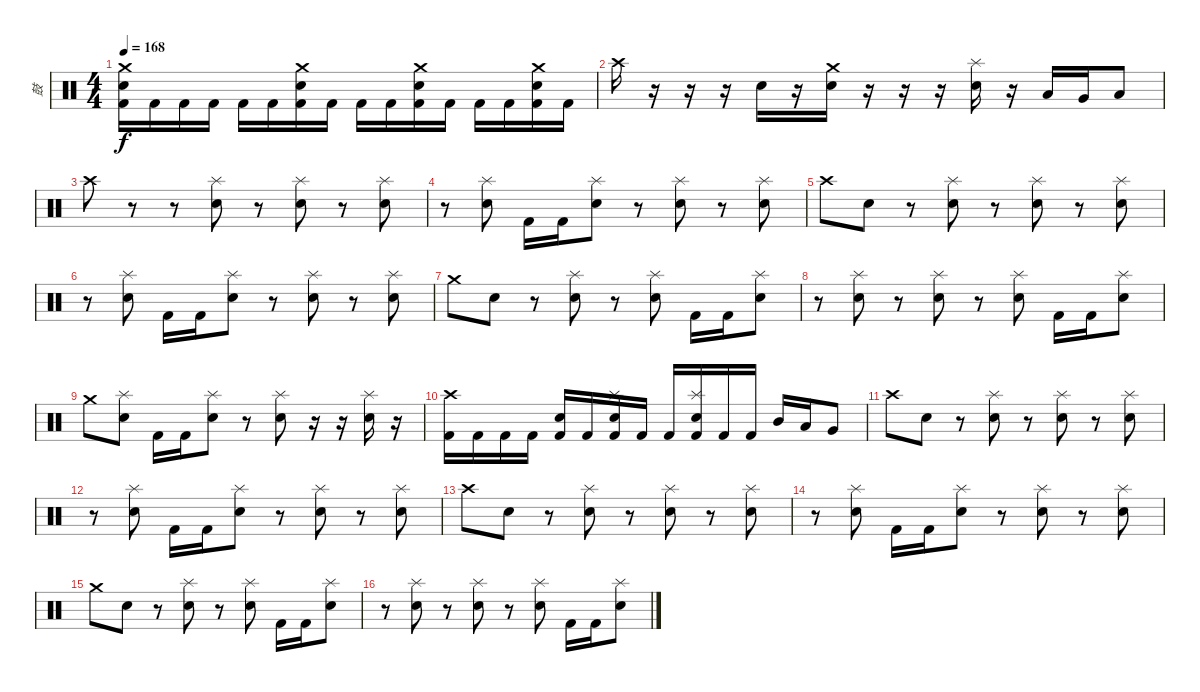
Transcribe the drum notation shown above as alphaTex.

\track ("鼓" "鼓") {instrument percussion}
\staff {score}
\articulation defaults
\ts (4 4)
\tempo 168
\clef neutral
\ks c
("Crash medium (hit)" "Snare (hit) 2" "Kick (hit) 2").16{dy f} "Kick (hit) 2".16 "Kick (hit) 2".16 "Kick (hit) 2".16 "Kick (hit) 2".16 "Kick (hit) 2".16 ("Crash medium (hit)" "Snare (hit) 2" "Kick (hit) 2").16 "Kick (hit) 2".16 "Kick (hit) 2".16 "Kick (hit) 2".16 ("Crash medium (hit)" "Snare (hit) 2" "Kick (hit) 2").16 "Kick (hit) 2".16 "Kick (hit) 2".16 "Kick (hit) 2".16 ("Crash medium (hit)" "Snare (hit) 2" "Kick (hit) 2").16 "Kick (hit) 2".16 |
"Crash high (hit)".16 r.16 r.16 r.16 "Snare (hit) 2".16 r.16 ("Crash medium (hit)" "Snare (hit) 2").16 r.16 r.16 r.16 ("Splash (hit)" "Snare (hit) 2").16 r.16 "Low Tom (hit)".16 "Very Low Tom (hit)".16 "Low Floor Tom (hit)".8 |
"Crash high (hit)".8 r.8 r.8 ("Splash (hit)" "Electric Snare (hit)").8 r.8 ("Splash (hit)" "Electric Snare (hit)").8 r.8 ("Splash (hit)" "Electric Snare (hit)").8 |
r.8 ("Splash (hit)" "Electric Snare (hit)").8 "Kick (hit) 2".16 "Kick (hit) 2".16 ("Splash (hit)" "Electric Snare (hit)").8 r.8 ("Splash (hit)" "Electric Snare (hit)").8 r.8 ("Splash (hit)" "Electric Snare (hit)").8 |
"Crash high (hit)".8 "Electric Snare (hit)".8 r.8 ("Splash (hit)" "Electric Snare (hit)").8 r.8 ("Splash (hit)" "Electric Snare (hit)").8 r.8 ("Splash (hit)" "Electric Snare (hit)").8 |
r.8 ("Splash (hit)" "Electric Snare (hit)").8 "Kick (hit) 2".16 "Kick (hit) 2".16 ("Splash (hit)" "Electric Snare (hit)").8 r.8 ("Splash (hit)" "Electric Snare (hit)").8 r.8 ("Splash (hit)" "Electric Snare (hit)").8 |
"Crash medium (hit)".8 "Electric Snare (hit)".8 r.8 ("Splash (hit)" "Electric Snare (hit)").8 r.8 ("Splash (hit)" "Electric Snare (hit)").8 "Kick (hit) 2".16 "Kick (hit) 2".16 ("Splash (hit)" "Electric Snare (hit)").8 |
r.8 ("Splash (hit)" "Electric Snare (hit)").8 r.8 ("Splash (hit)" "Electric Snare (hit)").8 r.8 ("Splash (hit)" "Electric Snare (hit)").8 "Kick (hit) 2".16 "Kick (hit) 2".16 ("Splash (hit)" "Electric Snare (hit)").8 |
"Crash medium (hit)".8 ("Splash (hit)" "Electric Snare (hit)").8 "Kick (hit) 2".16 "Kick (hit) 2".16 ("Splash (hit)" "Electric Snare (hit)").8 r.8 ("Splash (hit)" "Electric Snare (hit)").8 r.16 r.16 ("Splash (hit)" "Electric Snare (hit)").16 r.16 |
("Crash high (hit)" "Kick (hit) 2").16 "Kick (hit) 2".16 "Kick (hit) 2".16 "Kick (hit) 2".16 ("Electric Snare (hit)" "Kick (hit) 2").16 "Kick (hit) 2".16 ("Splash (hit)" "Electric Snare (hit)" "Kick (hit) 2").16 "Kick (hit) 2".16 "Kick (hit) 2".16 ("Splash (hit)" "Electric Snare (hit)" "Kick (hit) 2").16 "Kick (hit) 2".16 "Kick (hit) 2".16 "Mid Tom (hit)".16 "Low Tom (hit)".16 "Very Low Tom (hit)".8 |
"Crash high (hit)".8 "Electric Snare (hit)".8 r.8 ("Splash (hit)" "Electric Snare (hit)").8 r.8 ("Splash (hit)" "Electric Snare (hit)").8 r.8 ("Splash (hit)" "Electric Snare (hit)").8 |
r.8 ("Splash (hit)" "Electric Snare (hit)").8 "Kick (hit) 2".16 "Kick (hit) 2".16 ("Splash (hit)" "Electric Snare (hit)").8 r.8 ("Splash (hit)" "Electric Snare (hit)").8 r.8 ("Splash (hit)" "Electric Snare (hit)").8 |
"Crash high (hit)".8 "Electric Snare (hit)".8 r.8 ("Splash (hit)" "Electric Snare (hit)").8 r.8 ("Splash (hit)" "Electric Snare (hit)").8 r.8 ("Splash (hit)" "Electric Snare (hit)").8 |
r.8 ("Splash (hit)" "Electric Snare (hit)").8 "Kick (hit) 2".16 "Kick (hit) 2".16 ("Splash (hit)" "Electric Snare (hit)").8 r.8 ("Splash (hit)" "Electric Snare (hit)").8 r.8 ("Splash (hit)" "Electric Snare (hit)").8 |
"Crash medium (hit)".8 "Electric Snare (hit)".8 r.8 ("Splash (hit)" "Electric Snare (hit)").8 r.8 ("Splash (hit)" "Electric Snare (hit)").8 "Kick (hit) 2".16 "Kick (hit) 2".16 ("Splash (hit)" "Electric Snare (hit)").8 |
r.8 ("Splash (hit)" "Electric Snare (hit)").8 r.8 ("Splash (hit)" "Electric Snare (hit)").8 r.8 ("Splash (hit)" "Electric Snare (hit)").8 "Kick (hit) 2".16 "Kick (hit) 2".16 ("Splash (hit)" "Electric Snare (hit)").8
